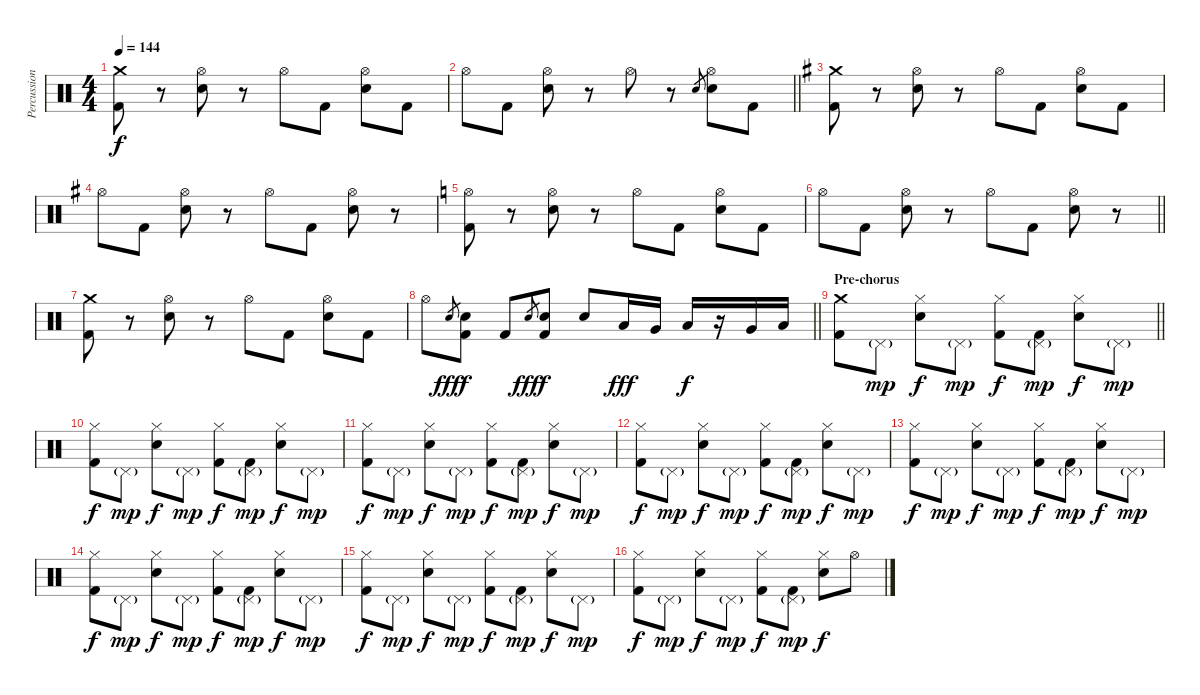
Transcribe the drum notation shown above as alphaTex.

\track ("Percussion" "Percussion") {instrument percussion}
\staff {score}
\articulation defaults
\ts (4 4)
\tempo 144
\clef neutral
\ks c
("Crash medium (hit)" "Kick (hit) 2").8{dy f} r.8 ("Hi-Hat (open)" "Electric Snare (hit)").8 r.8 "Hi-Hat (open)".8 "Kick (hit) 2".8 ("Hi-Hat (open)" "Electric Snare (hit)").8 "Kick (hit) 2".8 |
\barLineRight lightlight "Hi-Hat (open)".8 "Kick (hit) 2".8
("Hi-Hat (open)" "Electric Snare (hit)").8 r.8 "Hi-Hat (open)".8 r.8 "Electric Snare (hit)".8{gr} ("Hi-Hat (open)" "Electric Snare (hit)").8 "Kick (hit) 2".8 |
\ks g
("Crash medium (hit)" "Kick (hit) 2").8 r.8 ("Hi-Hat (open)" "Electric Snare (hit)").8 r.8 "Hi-Hat (open)".8 "Kick (hit) 2".8 ("Hi-Hat (open)" "Electric Snare (hit)").8 "Kick (hit) 2".8 |
"Hi-Hat (open)".8 "Kick (hit) 2".8 ("Hi-Hat (open)" "Electric Snare (hit)").8 r.8 "Hi-Hat (open)".8 "Kick (hit) 2".8 ("Hi-Hat (open)" "Electric Snare (hit)").8 r.8 |
\ks c
("Hi-Hat (open)" "Kick (hit) 2").8 r.8 ("Hi-Hat (open)" "Electric Snare (hit)").8 r.8 "Hi-Hat (open)".8 "Kick (hit) 2".8 ("Hi-Hat (open)" "Electric Snare (hit)").8 "Kick (hit) 2".8 |
\barLineRight lightlight "Hi-Hat (open)".8 "Kick (hit) 2".8
("Hi-Hat (open)" "Electric Snare (hit)").8 r.8 "Hi-Hat (open)".8 "Kick (hit) 2".8 ("Hi-Hat (open)" "Electric Snare (hit)").8 r.8 |
("Crash medium (hit)" "Kick (hit) 2").8 r.8 ("Hi-Hat (open)" "Electric Snare (hit)").8 r.8 "Hi-Hat (open)".8 "Kick (hit) 2".8 ("Hi-Hat (open)" "Electric Snare (hit)").8 "Kick (hit) 2".8 |
\barLineRight lightlight "Hi-Hat (open)".8 "Electric Snare (hit)".8{gr dy fff}
("Electric Snare (hit)" "Kick (hit) 2").8{dy f} "Kick (hit) 2".8 "Electric Snare (hit)".8{gr dy fff} ("Electric Snare (hit)" "Kick (hit) 2").8{dy f} "Electric Snare (hit)".8 "Low Tom (hit)".16{dy fff} "Very Low Tom (hit)".16 "Low Tom (hit)".16{dy f} r.16 "Very Low Tom (hit)".16 "Low Tom (hit)".16 |
\section ("" "Pre-chorus")
\barLineRight lightlight
("Crash medium (hit)" "Kick (hit) 2").8 "Pedal Hi-Hat (hit)"{g}.8{dy mp} ("Hi-Hat (closed)" "Electric Snare (hit)").8{dy f} "Pedal Hi-Hat (hit)"{g}.8{dy mp} ("Hi-Hat (closed)" "Kick (hit) 2").8{dy f} ("Pedal Hi-Hat (hit)"{g} "Kick (hit) 2").8{dy mp} ("Hi-Hat (closed)" "Electric Snare (hit)").8{dy f} "Pedal Hi-Hat (hit)"{g}.8{dy mp} |
("Hi-Hat (closed)" "Kick (hit) 2").8{dy f} "Pedal Hi-Hat (hit)"{g}.8{dy mp} ("Hi-Hat (closed)" "Electric Snare (hit)").8{dy f} "Pedal Hi-Hat (hit)"{g}.8{dy mp} ("Hi-Hat (closed)" "Kick (hit) 2").8{dy f} ("Pedal Hi-Hat (hit)"{g} "Kick (hit) 2").8{dy mp} ("Hi-Hat (closed)" "Electric Snare (hit)").8{dy f} "Pedal Hi-Hat (hit)"{g}.8{dy mp} |
("Hi-Hat (closed)" "Kick (hit) 2").8{dy f} "Pedal Hi-Hat (hit)"{g}.8{dy mp} ("Hi-Hat (closed)" "Electric Snare (hit)").8{dy f} "Pedal Hi-Hat (hit)"{g}.8{dy mp} ("Hi-Hat (closed)" "Kick (hit) 2").8{dy f} ("Pedal Hi-Hat (hit)"{g} "Kick (hit) 2").8{dy mp} ("Hi-Hat (closed)" "Electric Snare (hit)").8{dy f} "Pedal Hi-Hat (hit)"{g}.8{dy mp} |
("Hi-Hat (closed)" "Kick (hit) 2").8{dy f} "Pedal Hi-Hat (hit)"{g}.8{dy mp} ("Hi-Hat (closed)" "Electric Snare (hit)").8{dy f} "Pedal Hi-Hat (hit)"{g}.8{dy mp} ("Hi-Hat (closed)" "Kick (hit) 2").8{dy f} ("Pedal Hi-Hat (hit)"{g} "Kick (hit) 2").8{dy mp} ("Hi-Hat (closed)" "Electric Snare (hit)").8{dy f} "Pedal Hi-Hat (hit)"{g}.8{dy mp} |
("Hi-Hat (closed)" "Kick (hit) 2").8{dy f} "Pedal Hi-Hat (hit)"{g}.8{dy mp} ("Hi-Hat (closed)" "Electric Snare (hit)").8{dy f} "Pedal Hi-Hat (hit)"{g}.8{dy mp} ("Hi-Hat (closed)" "Kick (hit) 2").8{dy f} ("Pedal Hi-Hat (hit)"{g} "Kick (hit) 2").8{dy mp} ("Hi-Hat (closed)" "Electric Snare (hit)").8{dy f} "Pedal Hi-Hat (hit)"{g}.8{dy mp} |
("Hi-Hat (closed)" "Kick (hit) 2").8{dy f} "Pedal Hi-Hat (hit)"{g}.8{dy mp} ("Hi-Hat (closed)" "Electric Snare (hit)").8{dy f} "Pedal Hi-Hat (hit)"{g}.8{dy mp} ("Hi-Hat (closed)" "Kick (hit) 2").8{dy f} ("Pedal Hi-Hat (hit)"{g} "Kick (hit) 2").8{dy mp} ("Hi-Hat (closed)" "Electric Snare (hit)").8{dy f} "Pedal Hi-Hat (hit)"{g}.8{dy mp} |
("Hi-Hat (closed)" "Kick (hit) 2").8{dy f} "Pedal Hi-Hat (hit)"{g}.8{dy mp} ("Hi-Hat (closed)" "Electric Snare (hit)").8{dy f} "Pedal Hi-Hat (hit)"{g}.8{dy mp} ("Hi-Hat (closed)" "Kick (hit) 2").8{dy f} ("Pedal Hi-Hat (hit)"{g} "Kick (hit) 2").8{dy mp} ("Hi-Hat (closed)" "Electric Snare (hit)").8{dy f} "Pedal Hi-Hat (hit)"{g}.8{dy mp} |
("Hi-Hat (closed)" "Kick (hit) 2").8{dy f} "Pedal Hi-Hat (hit)"{g}.8{dy mp} ("Hi-Hat (closed)" "Electric Snare (hit)").8{dy f} "Pedal Hi-Hat (hit)"{g}.8{dy mp} ("Hi-Hat (closed)" "Kick (hit) 2").8{dy f} ("Pedal Hi-Hat (hit)"{g} "Kick (hit) 2").8{dy mp} ("Hi-Hat (closed)" "Electric Snare (hit)").8{dy f} "Hi-Hat (open)".8
